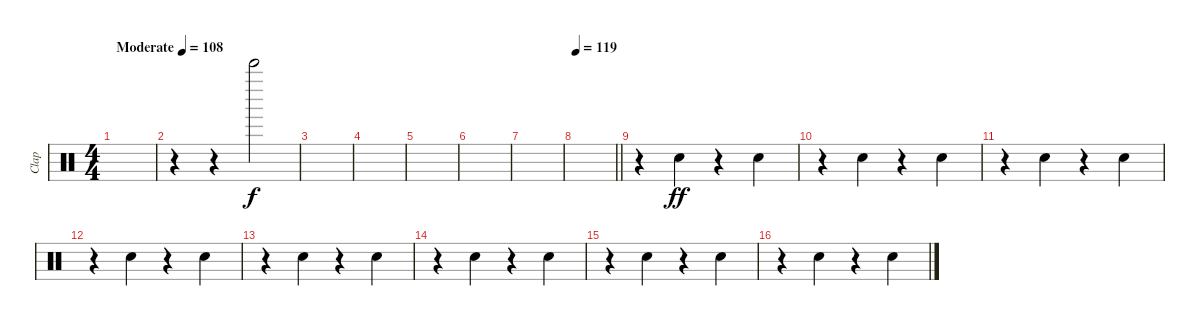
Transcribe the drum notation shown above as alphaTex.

\track ("Clap" "Clap") {instrument percussion}
\staff {score}
\articulation defaults
\ts (4 4)
\tempo (108 "Moderate")
\clef neutral
\ks c
|
r.4 r.4 "Bell Tree (hit)".2 |
|
|
|
|
|
\tempo 108
\tempo 119
\barLineRight lightlight
|
r.4 "Hand Clap (hit)".4{dy ff} r.4 "Hand Clap (hit)".4 |
r.4 "Hand Clap (hit)".4 r.4 "Hand Clap (hit)".4 |
r.4 "Hand Clap (hit)".4 r.4 "Hand Clap (hit)".4 |
r.4 "Hand Clap (hit)".4 r.4 "Hand Clap (hit)".4 |
r.4 "Hand Clap (hit)".4 r.4 "Hand Clap (hit)".4 |
r.4 "Hand Clap (hit)".4 r.4 "Hand Clap (hit)".4 |
r.4 "Hand Clap (hit)".4 r.4 "Hand Clap (hit)".4 |
r.4 "Hand Clap (hit)".4 r.4 "Hand Clap (hit)".4
